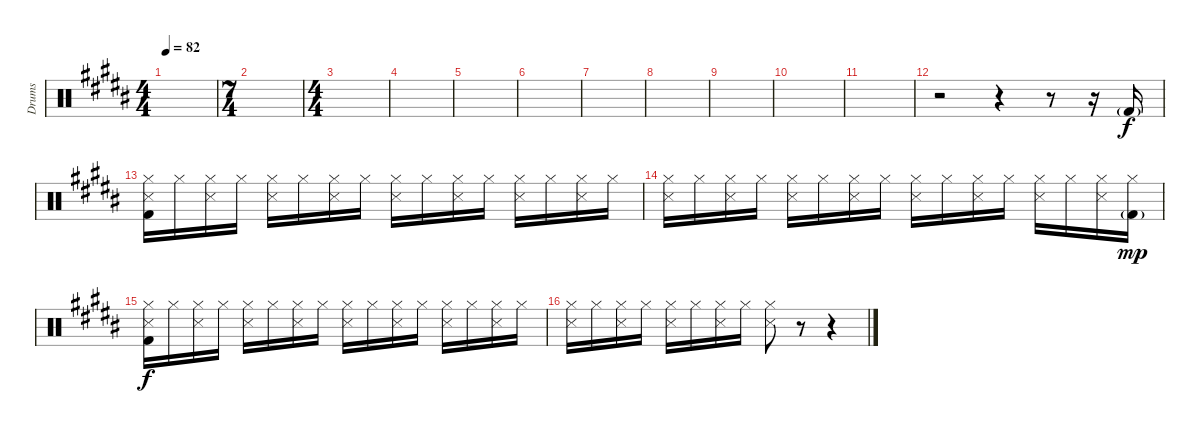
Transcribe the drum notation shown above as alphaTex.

\track ("Drums" "Drums") {instrument percussion}
\staff {score}
\articulation defaults
\ts (4 4)
\tempo 82
\clef neutral
\ks b
|
\ts (7 4)
|
\ts (4 4)
|
|
|
|
|
|
|
|
|
r.2 r.4 r.8 r.16 "Kick (hit) 2"{g}.16 |
("Hi-Hat (closed)" "Snare (side stick) 3" "Kick (hit) 2").16{dy f} "Hi-Hat (closed)".16 ("Hi-Hat (closed)" "Snare (side stick) 3").16 "Hi-Hat (closed)".16 ("Hi-Hat (closed)" "Snare (side stick) 3").16 "Hi-Hat (closed)".16 ("Hi-Hat (closed)" "Snare (side stick) 3").16 "Hi-Hat (closed)".16 ("Hi-Hat (closed)" "Snare (side stick) 3").16 "Hi-Hat (closed)".16 ("Hi-Hat (closed)" "Snare (side stick) 3").16 "Hi-Hat (closed)".16 ("Hi-Hat (closed)" "Snare (side stick) 3").16 "Hi-Hat (closed)".16 ("Hi-Hat (closed)" "Snare (side stick) 3").16 "Hi-Hat (closed)".16 |
("Hi-Hat (closed)" "Snare (side stick) 3").16 "Hi-Hat (closed)".16 ("Hi-Hat (closed)" "Snare (side stick) 3").16 "Hi-Hat (closed)".16 ("Hi-Hat (closed)" "Snare (side stick) 3").16 "Hi-Hat (closed)".16 ("Hi-Hat (closed)" "Snare (side stick) 3").16 "Hi-Hat (closed)".16 ("Hi-Hat (closed)" "Snare (side stick) 3").16 "Hi-Hat (closed)".16 ("Hi-Hat (closed)" "Snare (side stick) 3").16 "Hi-Hat (closed)".16 ("Hi-Hat (closed)" "Snare (side stick) 3").16 "Hi-Hat (closed)".16 ("Hi-Hat (closed)" "Snare (side stick) 3").16 ("Hi-Hat (closed)" "Kick (hit) 2"{g}).16{dy mp} |
("Hi-Hat (closed)" "Snare (side stick) 3" "Kick (hit) 2").16{dy f} "Hi-Hat (closed)".16 ("Hi-Hat (closed)" "Snare (side stick) 3").16 "Hi-Hat (closed)".16 ("Hi-Hat (closed)" "Snare (side stick) 3").16 "Hi-Hat (closed)".16 ("Hi-Hat (closed)" "Snare (side stick) 3").16 "Hi-Hat (closed)".16 ("Hi-Hat (closed)" "Snare (side stick) 3").16 "Hi-Hat (closed)".16 ("Hi-Hat (closed)" "Snare (side stick) 3").16 "Hi-Hat (closed)".16 ("Hi-Hat (closed)" "Snare (side stick) 3").16 "Hi-Hat (closed)".16 ("Hi-Hat (closed)" "Snare (side stick) 3").16 "Hi-Hat (closed)".16 |
("Hi-Hat (closed)" "Snare (side stick) 3").16 "Hi-Hat (closed)".16 ("Hi-Hat (closed)" "Snare (side stick) 3").16 "Hi-Hat (closed)".16 ("Hi-Hat (closed)" "Snare (side stick) 3").16 "Hi-Hat (closed)".16 ("Hi-Hat (closed)" "Snare (side stick) 3").16 "Hi-Hat (closed)".16 ("Hi-Hat (closed)" "Snare (side stick) 3").8 r.8 r.4
